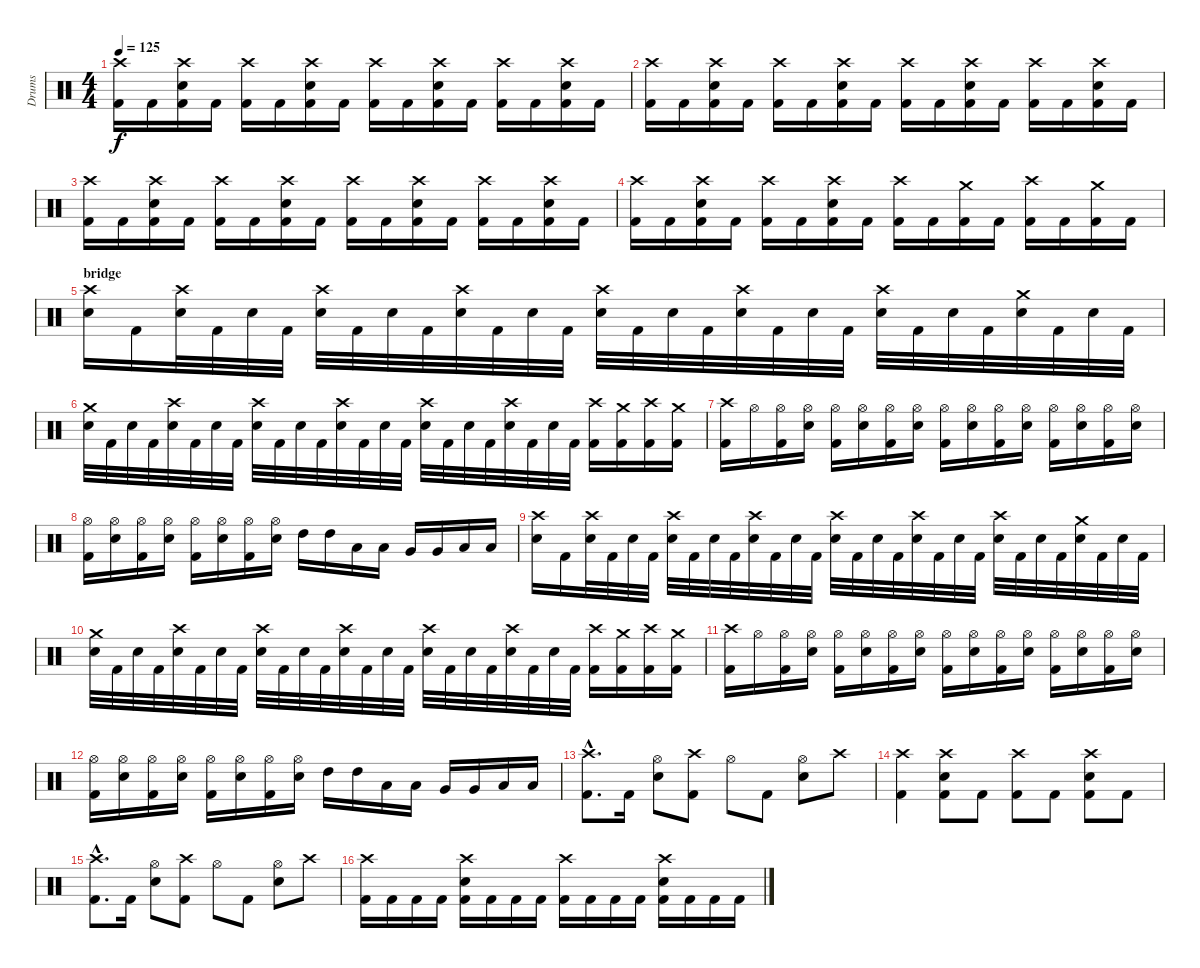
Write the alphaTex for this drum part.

\track ("Drums" "Drums") {instrument percussion}
\staff {score}
\articulation defaults
\ts (4 4)
\tempo 125
\clef neutral
\ks c
("Crash high (hit)" "Kick (hit) 2").16{dy f} "Kick (hit) 2".16 ("Crash high (hit)" "Electric Snare (hit)" "Kick (hit) 2").16 "Kick (hit) 2".16 ("Crash high (hit)" "Kick (hit) 2").16 "Kick (hit) 2".16 ("Crash high (hit)" "Electric Snare (hit)" "Kick (hit) 2").16 "Kick (hit) 2".16 ("Crash high (hit)" "Kick (hit) 2").16 "Kick (hit) 2".16 ("Crash high (hit)" "Electric Snare (hit)" "Kick (hit) 2").16 "Kick (hit) 2".16 ("Crash high (hit)" "Kick (hit) 2").16 "Kick (hit) 2".16 ("Crash high (hit)" "Electric Snare (hit)" "Kick (hit) 2").16 "Kick (hit) 2".16 |
("Crash high (hit)" "Kick (hit) 2").16 "Kick (hit) 2".16 ("Crash high (hit)" "Electric Snare (hit)" "Kick (hit) 2").16 "Kick (hit) 2".16 ("Crash high (hit)" "Kick (hit) 2").16 "Kick (hit) 2".16 ("Crash high (hit)" "Electric Snare (hit)" "Kick (hit) 2").16 "Kick (hit) 2".16 ("Crash high (hit)" "Kick (hit) 2").16 "Kick (hit) 2".16 ("Crash high (hit)" "Electric Snare (hit)" "Kick (hit) 2").16 "Kick (hit) 2".16 ("Crash high (hit)" "Kick (hit) 2").16 "Kick (hit) 2".16 ("Crash high (hit)" "Electric Snare (hit)" "Kick (hit) 2").16 "Kick (hit) 2".16 |
("Crash high (hit)" "Kick (hit) 2").16 "Kick (hit) 2".16 ("Crash high (hit)" "Electric Snare (hit)" "Kick (hit) 2").16 "Kick (hit) 2".16 ("Crash high (hit)" "Kick (hit) 2").16 "Kick (hit) 2".16 ("Crash high (hit)" "Electric Snare (hit)" "Kick (hit) 2").16 "Kick (hit) 2".16 ("Crash high (hit)" "Kick (hit) 2").16 "Kick (hit) 2".16 ("Crash high (hit)" "Electric Snare (hit)" "Kick (hit) 2").16 "Kick (hit) 2".16 ("Crash high (hit)" "Kick (hit) 2").16 "Kick (hit) 2".16 ("Crash high (hit)" "Electric Snare (hit)" "Kick (hit) 2").16 "Kick (hit) 2".16 |
("Crash high (hit)" "Kick (hit) 2").16 "Kick (hit) 2".16 ("Crash high (hit)" "Electric Snare (hit)" "Kick (hit) 2").16 "Kick (hit) 2".16 ("Crash high (hit)" "Kick (hit) 2").16 "Kick (hit) 2".16 ("Crash high (hit)" "Electric Snare (hit)" "Kick (hit) 2").16 "Kick (hit) 2".16 ("Crash high (hit)" "Kick (hit) 2").16 "Kick (hit) 2".16 ("Crash medium (hit)" "Kick (hit) 2").16 "Kick (hit) 2".16 ("Crash high (hit)" "Kick (hit) 2").16 "Kick (hit) 2".16 ("Crash medium (hit)" "Kick (hit) 2").16 "Kick (hit) 2".16 |
\section ("" "bridge")
("Crash high (hit)" "Electric Snare (hit)").16 "Kick (hit) 2".16 ("Crash high (hit)" "Electric Snare (hit)").32 "Kick (hit) 2".32 "Electric Snare (hit)".32 "Kick (hit) 2".32 ("Crash high (hit)" "Electric Snare (hit)").32 "Kick (hit) 2".32 "Electric Snare (hit)".32 "Kick (hit) 2".32 ("Crash high (hit)" "Electric Snare (hit)").32 "Kick (hit) 2".32 "Electric Snare (hit)".32 "Kick (hit) 2".32 ("Crash high (hit)" "Electric Snare (hit)").32 "Kick (hit) 2".32 "Electric Snare (hit)".32 "Kick (hit) 2".32 ("Crash high (hit)" "Electric Snare (hit)").32 "Kick (hit) 2".32 "Electric Snare (hit)".32 "Kick (hit) 2".32 ("Crash high (hit)" "Electric Snare (hit)").32 "Kick (hit) 2".32 "Electric Snare (hit)".32 "Kick (hit) 2".32 ("Crash medium (hit)" "Electric Snare (hit)").32 "Kick (hit) 2".32 "Electric Snare (hit)".32 "Kick (hit) 2".32 |
("Crash medium (hit)" "Electric Snare (hit)").32 "Kick (hit) 2".32 "Electric Snare (hit)".32 "Kick (hit) 2".32 ("Crash high (hit)" "Electric Snare (hit)").32 "Kick (hit) 2".32 "Electric Snare (hit)".32 "Kick (hit) 2".32 ("Crash high (hit)" "Electric Snare (hit)").32 "Kick (hit) 2".32 "Electric Snare (hit)".32 "Kick (hit) 2".32 ("Crash high (hit)" "Electric Snare (hit)").32 "Kick (hit) 2".32 "Electric Snare (hit)".32 "Kick (hit) 2".32 ("Crash high (hit)" "Electric Snare (hit)").32 "Kick (hit) 2".32 "Electric Snare (hit)".32 "Kick (hit) 2".32 ("Crash high (hit)" "Electric Snare (hit)").32 "Kick (hit) 2".32 "Electric Snare (hit)".32 "Kick (hit) 2".32 ("Crash high (hit)" "Kick (hit) 2").16 ("Crash medium (hit)" "Kick (hit) 2").16 ("Crash high (hit)" "Kick (hit) 2").16 ("Crash medium (hit)" "Kick (hit) 2").16 |
("Crash high (hit)" "Kick (hit) 2").16 "Hi-Hat (open)".16 ("Hi-Hat (open)" "Kick (hit) 2").16 ("Hi-Hat (open)" "Electric Snare (hit)").16 ("Hi-Hat (open)" "Kick (hit) 2").16 ("Hi-Hat (open)" "Electric Snare (hit)").16 ("Hi-Hat (open)" "Kick (hit) 2").16 ("Hi-Hat (open)" "Electric Snare (hit)").16 ("Hi-Hat (open)" "Kick (hit) 2").16 ("Hi-Hat (open)" "Electric Snare (hit)").16 ("Hi-Hat (open)" "Kick (hit) 2").16 ("Hi-Hat (open)" "Electric Snare (hit)").16 ("Hi-Hat (open)" "Kick (hit) 2").16 ("Hi-Hat (open)" "Electric Snare (hit)").16 ("Hi-Hat (open)" "Kick (hit) 2").16 ("Hi-Hat (open)" "Electric Snare (hit)").16 |
("Hi-Hat (open)" "Kick (hit) 2").16 ("Hi-Hat (open)" "Electric Snare (hit)").16 ("Hi-Hat (open)" "Kick (hit) 2").16 ("Hi-Hat (open)" "Electric Snare (hit)").16 ("Hi-Hat (open)" "Kick (hit) 2").16 ("Hi-Hat (open)" "Electric Snare (hit)").16 ("Hi-Hat (open)" "Kick (hit) 2").16 ("Hi-Hat (open)" "Electric Snare (hit)").16 "High Tom (hit)".16 "High Tom (hit)".16 "Low Tom (hit)".16 "Low Tom (hit)".16 "Very Low Tom (hit)".16 "Very Low Tom (hit)".16 "Low Floor Tom (hit)".16 "Low Floor Tom (hit)".16 |
("Crash high (hit)" "Electric Snare (hit)").16 "Kick (hit) 2".16 ("Crash high (hit)" "Electric Snare (hit)").32 "Kick (hit) 2".32 "Electric Snare (hit)".32 "Kick (hit) 2".32 ("Crash high (hit)" "Electric Snare (hit)").32 "Kick (hit) 2".32 "Electric Snare (hit)".32 "Kick (hit) 2".32 ("Crash high (hit)" "Electric Snare (hit)").32 "Kick (hit) 2".32 "Electric Snare (hit)".32 "Kick (hit) 2".32 ("Crash high (hit)" "Electric Snare (hit)").32 "Kick (hit) 2".32 "Electric Snare (hit)".32 "Kick (hit) 2".32 ("Crash high (hit)" "Electric Snare (hit)").32 "Kick (hit) 2".32 "Electric Snare (hit)".32 "Kick (hit) 2".32 ("Crash high (hit)" "Electric Snare (hit)").32 "Kick (hit) 2".32 "Electric Snare (hit)".32 "Kick (hit) 2".32 ("Crash medium (hit)" "Electric Snare (hit)").32 "Kick (hit) 2".32 "Electric Snare (hit)".32 "Kick (hit) 2".32 |
("Crash medium (hit)" "Electric Snare (hit)").32 "Kick (hit) 2".32 "Electric Snare (hit)".32 "Kick (hit) 2".32 ("Crash high (hit)" "Electric Snare (hit)").32 "Kick (hit) 2".32 "Electric Snare (hit)".32 "Kick (hit) 2".32 ("Crash high (hit)" "Electric Snare (hit)").32 "Kick (hit) 2".32 "Electric Snare (hit)".32 "Kick (hit) 2".32 ("Crash high (hit)" "Electric Snare (hit)").32 "Kick (hit) 2".32 "Electric Snare (hit)".32 "Kick (hit) 2".32 ("Crash high (hit)" "Electric Snare (hit)").32 "Kick (hit) 2".32 "Electric Snare (hit)".32 "Kick (hit) 2".32 ("Crash high (hit)" "Electric Snare (hit)").32 "Kick (hit) 2".32 "Electric Snare (hit)".32 "Kick (hit) 2".32 ("Crash high (hit)" "Kick (hit) 2").16 ("Crash medium (hit)" "Kick (hit) 2").16 ("Crash high (hit)" "Kick (hit) 2").16 ("Crash medium (hit)" "Kick (hit) 2").16 |
("Crash high (hit)" "Kick (hit) 2").16 "Hi-Hat (open)".16 ("Hi-Hat (open)" "Kick (hit) 2").16 ("Hi-Hat (open)" "Electric Snare (hit)").16 ("Hi-Hat (open)" "Kick (hit) 2").16 ("Hi-Hat (open)" "Electric Snare (hit)").16 ("Hi-Hat (open)" "Kick (hit) 2").16 ("Hi-Hat (open)" "Electric Snare (hit)").16 ("Hi-Hat (open)" "Kick (hit) 2").16 ("Hi-Hat (open)" "Electric Snare (hit)").16 ("Hi-Hat (open)" "Kick (hit) 2").16 ("Hi-Hat (open)" "Electric Snare (hit)").16 ("Hi-Hat (open)" "Kick (hit) 2").16 ("Hi-Hat (open)" "Electric Snare (hit)").16 ("Hi-Hat (open)" "Kick (hit) 2").16 ("Hi-Hat (open)" "Electric Snare (hit)").16 |
("Hi-Hat (open)" "Kick (hit) 2").16 ("Hi-Hat (open)" "Electric Snare (hit)").16 ("Hi-Hat (open)" "Kick (hit) 2").16 ("Hi-Hat (open)" "Electric Snare (hit)").16 ("Hi-Hat (open)" "Kick (hit) 2").16 ("Hi-Hat (open)" "Electric Snare (hit)").16 ("Hi-Hat (open)" "Kick (hit) 2").16 ("Hi-Hat (open)" "Electric Snare (hit)").16 "High Tom (hit)".16 "High Tom (hit)".16 "Low Tom (hit)".16 "Low Tom (hit)".16 "Very Low Tom (hit)".16 "Very Low Tom (hit)".16 "Low Floor Tom (hit)".16 "Low Floor Tom (hit)".16 |
\section ("" "")
("Crash high (hit)"{hac} "Kick (hit) 2"{hac}).8{d} "Kick (hit) 2".16 ("Hi-Hat (open)" "Electric Snare (hit)").8 ("Crash high (hit)" "Kick (hit) 2").8 "Hi-Hat (open)".8 "Kick (hit) 2".8 ("Hi-Hat (open)" "Electric Snare (hit)").8 "Crash high (hit)".8 |
("Crash high (hit)" "Kick (hit) 2").4 ("Crash high (hit)" "Electric Snare (hit)" "Kick (hit) 2").8 "Kick (hit) 2".8 ("Crash high (hit)" "Kick (hit) 2").8 "Kick (hit) 2".8 ("Crash high (hit)" "Electric Snare (hit)" "Kick (hit) 2").8 "Kick (hit) 2".8 |
("Crash high (hit)"{hac} "Kick (hit) 2"{hac}).8{d} "Kick (hit) 2".16 ("Hi-Hat (open)" "Electric Snare (hit)").8 ("Crash high (hit)" "Kick (hit) 2").8 "Hi-Hat (open)".8 "Kick (hit) 2".8 ("Hi-Hat (open)" "Electric Snare (hit)").8 "Crash high (hit)".8 |
("Crash high (hit)" "Kick (hit) 2").16 "Kick (hit) 2".16 "Kick (hit) 2".16 "Kick (hit) 2".16 ("Crash high (hit)" "Electric Snare (hit)" "Kick (hit) 2").16 "Kick (hit) 2".16 "Kick (hit) 2".16 "Kick (hit) 2".16 ("Crash high (hit)" "Kick (hit) 2").16 "Kick (hit) 2".16 "Kick (hit) 2".16 "Kick (hit) 2".16 ("Crash high (hit)" "Electric Snare (hit)" "Kick (hit) 2").16 "Kick (hit) 2".16 "Kick (hit) 2".16 "Kick (hit) 2".16
